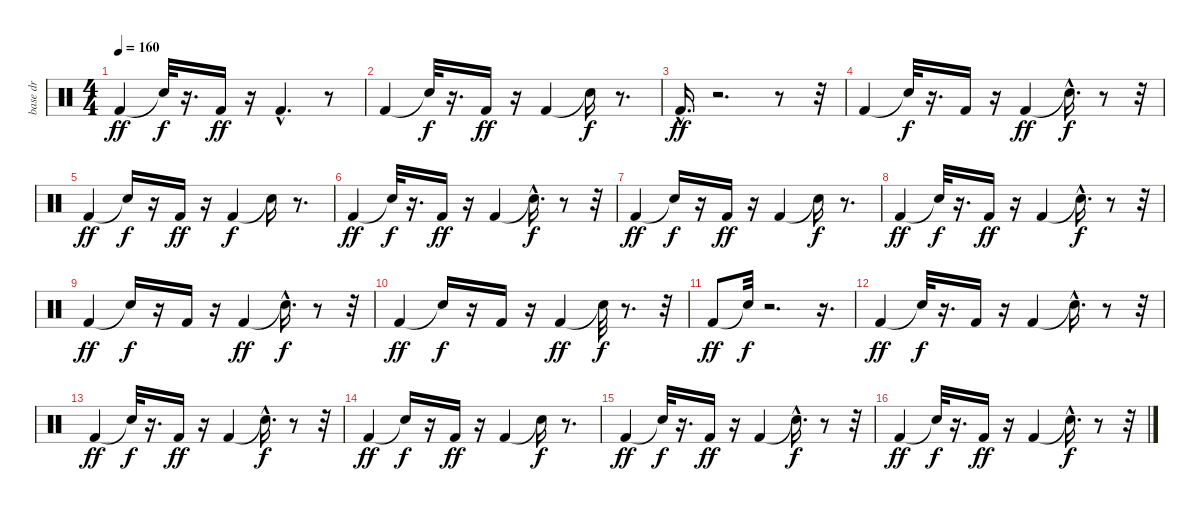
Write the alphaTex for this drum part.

\track ("base dr" "base dr") {instrument percussion}
\staff {score}
\articulation defaults
\ts (4 4)
\tempo 160
\clef neutral
\ks c "Kick (hit) 2".4{dy ff} "Snare (hit)"{t}.32{dy f}
r.16{d} "Kick (hit) 2".16{dy ff} r.16 "Kick (hit) 2"{hac}.4{d} r.8 |
"Kick (hit) 2".4 "Snare (hit)"{t}.32{dy f} r.16{d} "Kick (hit) 2".16{dy ff} r.16 "Kick (hit) 2".4 "Snare (hit)"{t}.16{dy f} r.8{d} |
"Kick (hit) 2"{hac}.16{d dy ff} r.2{d} r.8 r.32 |
"Kick (hit) 2".4 "Snare (hit)"{t}.32{dy f} r.16{d} "Kick (hit) 2".16 r.16 "Kick (hit) 2".4{dy ff} "Snare (hit)"{hac t}.16{d dy f} r.8 r.32 |
"Kick (hit) 2".4{dy ff} "Snare (hit)"{t}.16{dy f} r.16 "Kick (hit) 2".16{dy ff} r.16 "Kick (hit) 2".4{dy f} "Snare (hit)"{t}.16 r.8{d} |
"Kick (hit) 2".4{dy ff} "Snare (hit)"{t}.32{dy f} r.16{d} "Kick (hit) 2".16{dy ff} r.16 "Kick (hit) 2".4 "Snare (hit)"{hac t}.16{d dy f} r.8 r.32 |
"Kick (hit) 2".4{dy ff} "Snare (hit)"{t}.16{dy f} r.16 "Kick (hit) 2".16{dy ff} r.16 "Kick (hit) 2".4 "Snare (hit)"{t}.16{dy f} r.8{d} |
"Kick (hit) 2".4{dy ff} "Snare (hit)"{t}.32{dy f} r.16{d} "Kick (hit) 2".16{dy ff} r.16 "Kick (hit) 2".4 "Snare (hit)"{hac t}.16{d dy f} r.8 r.32 |
"Kick (hit) 2".4{dy ff} "Snare (hit)"{t}.16{dy f} r.16 "Kick (hit) 2".16 r.16 "Kick (hit) 2".4{dy ff} "Snare (hit)"{hac t}.16{d dy f} r.8 r.32 |
"Kick (hit) 2".4{dy ff} "Snare (hit)"{t}.16{dy f} r.16 "Kick (hit) 2".16 r.16 "Kick (hit) 2".4{dy ff} "Snare (hit)"{t}.32{dy f} r.8{d} r.32 |
"Kick (hit) 2".8{dy ff} "Snare (hit)"{t}.32{dy f} r.2{d} r.16{d} |
"Kick (hit) 2".4{dy ff} "Snare (hit)"{t}.32{dy f} r.16{d} "Kick (hit) 2".16 r.16 "Kick (hit) 2".4 "Snare (hit)"{hac t}.16{d} r.8 r.32 |
"Kick (hit) 2".4{dy ff} "Snare (hit)"{t}.32{dy f} r.16{d} "Kick (hit) 2".16{dy ff} r.16 "Kick (hit) 2".4 "Snare (hit)"{hac t}.16{d dy f} r.8 r.32 |
"Kick (hit) 2".4{dy ff} "Snare (hit)"{t}.16{dy f} r.16 "Kick (hit) 2".16{dy ff} r.16 "Kick (hit) 2".4 "Snare (hit)"{t}.16{dy f} r.8{d} |
"Kick (hit) 2".4{dy ff} "Snare (hit)"{t}.32{dy f} r.16{d} "Kick (hit) 2".16{dy ff} r.16 "Kick (hit) 2".4 "Snare (hit)"{hac t}.16{d dy f} r.8 r.32 |
"Kick (hit) 2".4{dy ff} "Snare (hit)"{t}.32{dy f} r.16{d} "Kick (hit) 2".16{dy ff} r.16 "Kick (hit) 2".4 "Snare (hit)"{hac t}.16{d dy f} r.8 r.32
